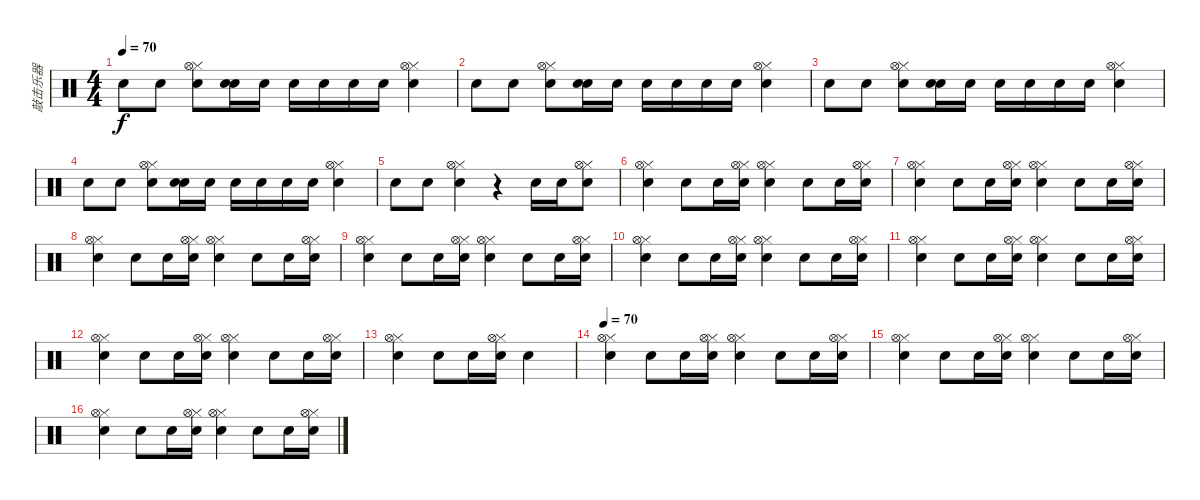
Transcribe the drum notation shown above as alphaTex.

\track ("敲击乐器" "敲击乐器") {instrument percussion}
\staff {score}
\articulation defaults
\ts (4 4)
\tempo 70
\clef neutral
\ks c "Snare (hit) 2".8{dy f} "Snare (hit) 2".8
("Electric Snare (hit)" "Hi-Hat (closed)" "Hi-Hat (open)").8 ("Snare (hit) 2" "Snare (hit) 2").16 "Snare (hit) 2".16 "Snare (hit) 2".16 "Snare (hit) 2".16 "Snare (hit) 2".16 "Snare (hit) 2".16 ("Electric Snare (hit)" "Hi-Hat (closed)" "Hi-Hat (open)").4 |
"Snare (hit) 2".8 "Snare (hit) 2".8 ("Electric Snare (hit)" "Hi-Hat (closed)" "Hi-Hat (open)").8 ("Snare (hit) 2" "Snare (hit) 2").16 "Snare (hit) 2".16 "Snare (hit) 2".16 "Snare (hit) 2".16 "Snare (hit) 2".16 "Snare (hit) 2".16 ("Electric Snare (hit)" "Hi-Hat (closed)" "Hi-Hat (open)").4 |
"Snare (hit) 2".8 "Snare (hit) 2".8 ("Electric Snare (hit)" "Hi-Hat (closed)" "Hi-Hat (open)").8 ("Snare (hit) 2" "Snare (hit) 2").16 "Snare (hit) 2".16 "Snare (hit) 2".16 "Snare (hit) 2".16 "Snare (hit) 2".16 "Snare (hit) 2".16 ("Electric Snare (hit)" "Hi-Hat (closed)" "Hi-Hat (open)").4 |
"Snare (hit) 2".8 "Snare (hit) 2".8 ("Electric Snare (hit)" "Hi-Hat (closed)" "Hi-Hat (open)").8 ("Snare (hit) 2" "Snare (hit) 2").16 "Snare (hit) 2".16 "Snare (hit) 2".16 "Snare (hit) 2".16 "Snare (hit) 2".16 "Snare (hit) 2".16 ("Electric Snare (hit)" "Hi-Hat (closed)" "Hi-Hat (open)").4 |
"Snare (hit) 2".8 "Snare (hit) 2".8 ("Electric Snare (hit)" "Hi-Hat (closed)" "Hi-Hat (open)").4 r.4 "Snare (hit) 2".16 "Snare (hit) 2".16 ("Electric Snare (hit)" "Hi-Hat (closed)" "Hi-Hat (open)").8 |
("Electric Snare (hit)" "Hi-Hat (closed)" "Hi-Hat (open)").4 "Snare (hit) 2".8 "Snare (hit) 2".16 ("Electric Snare (hit)" "Hi-Hat (closed)" "Hi-Hat (open)").16 ("Electric Snare (hit)" "Hi-Hat (closed)" "Hi-Hat (open)").4 "Snare (hit) 2".8 "Snare (hit) 2".16 ("Electric Snare (hit)" "Hi-Hat (closed)" "Hi-Hat (open)").16 |
("Electric Snare (hit)" "Hi-Hat (closed)" "Hi-Hat (open)").4 "Snare (hit) 2".8 "Snare (hit) 2".16 ("Electric Snare (hit)" "Hi-Hat (closed)" "Hi-Hat (open)").16 ("Electric Snare (hit)" "Hi-Hat (closed)" "Hi-Hat (open)").4 "Snare (hit) 2".8 "Snare (hit) 2".16 ("Electric Snare (hit)" "Hi-Hat (closed)" "Hi-Hat (open)").16 |
("Electric Snare (hit)" "Hi-Hat (closed)" "Hi-Hat (open)").4 "Snare (hit) 2".8 "Snare (hit) 2".16 ("Electric Snare (hit)" "Hi-Hat (closed)" "Hi-Hat (open)").16 ("Electric Snare (hit)" "Hi-Hat (closed)" "Hi-Hat (open)").4 "Snare (hit) 2".8 "Snare (hit) 2".16 ("Electric Snare (hit)" "Hi-Hat (closed)" "Hi-Hat (open)").16 |
("Electric Snare (hit)" "Hi-Hat (closed)" "Hi-Hat (open)").4 "Snare (hit) 2".8 "Snare (hit) 2".16 ("Electric Snare (hit)" "Hi-Hat (closed)" "Hi-Hat (open)").16 ("Electric Snare (hit)" "Hi-Hat (closed)" "Hi-Hat (open)").4 "Snare (hit) 2".8 "Snare (hit) 2".16 ("Electric Snare (hit)" "Hi-Hat (closed)" "Hi-Hat (open)").16 |
("Electric Snare (hit)" "Hi-Hat (closed)" "Hi-Hat (open)").4 "Snare (hit) 2".8 "Snare (hit) 2".16 ("Electric Snare (hit)" "Hi-Hat (closed)" "Hi-Hat (open)").16 ("Electric Snare (hit)" "Hi-Hat (closed)" "Hi-Hat (open)").4 "Snare (hit) 2".8 "Snare (hit) 2".16 ("Electric Snare (hit)" "Hi-Hat (closed)" "Hi-Hat (open)").16 |
("Electric Snare (hit)" "Hi-Hat (closed)" "Hi-Hat (open)").4 "Snare (hit) 2".8 "Snare (hit) 2".16 ("Electric Snare (hit)" "Hi-Hat (closed)" "Hi-Hat (open)").16 ("Electric Snare (hit)" "Hi-Hat (closed)" "Hi-Hat (open)").4 "Snare (hit) 2".8 "Snare (hit) 2".16 ("Electric Snare (hit)" "Hi-Hat (closed)" "Hi-Hat (open)").16 |
("Electric Snare (hit)" "Hi-Hat (closed)" "Hi-Hat (open)").4 "Snare (hit) 2".8 "Snare (hit) 2".16 ("Electric Snare (hit)" "Hi-Hat (closed)" "Hi-Hat (open)").16 ("Electric Snare (hit)" "Hi-Hat (closed)" "Hi-Hat (open)").4 "Snare (hit) 2".8 "Snare (hit) 2".16 ("Electric Snare (hit)" "Hi-Hat (closed)" "Hi-Hat (open)").16 |
("Electric Snare (hit)" "Hi-Hat (closed)" "Hi-Hat (open)").4 "Snare (hit) 2".8 "Snare (hit) 2".16 ("Electric Snare (hit)" "Hi-Hat (closed)" "Hi-Hat (open)").16 "Metronome (bell)".2 |
\tempo 70
("Electric Snare (hit)" "Hi-Hat (closed)" "Hi-Hat (open)").4 "Snare (hit) 2".8 "Snare (hit) 2".16 ("Electric Snare (hit)" "Hi-Hat (closed)" "Hi-Hat (open)").16 ("Electric Snare (hit)" "Hi-Hat (closed)" "Hi-Hat (open)").4 "Snare (hit) 2".8 "Snare (hit) 2".16 ("Electric Snare (hit)" "Hi-Hat (closed)" "Hi-Hat (open)").16 |
("Electric Snare (hit)" "Hi-Hat (closed)" "Hi-Hat (open)").4 "Snare (hit) 2".8 "Snare (hit) 2".16 ("Electric Snare (hit)" "Hi-Hat (closed)" "Hi-Hat (open)").16 ("Electric Snare (hit)" "Hi-Hat (closed)" "Hi-Hat (open)").4 "Snare (hit) 2".8 "Snare (hit) 2".16 ("Electric Snare (hit)" "Hi-Hat (closed)" "Hi-Hat (open)").16 |
("Electric Snare (hit)" "Hi-Hat (closed)" "Hi-Hat (open)").4 "Snare (hit) 2".8 "Snare (hit) 2".16 ("Electric Snare (hit)" "Hi-Hat (closed)" "Hi-Hat (open)").16 ("Electric Snare (hit)" "Hi-Hat (closed)" "Hi-Hat (open)").4 "Snare (hit) 2".8 "Snare (hit) 2".16 ("Electric Snare (hit)" "Hi-Hat (closed)" "Hi-Hat (open)").16
